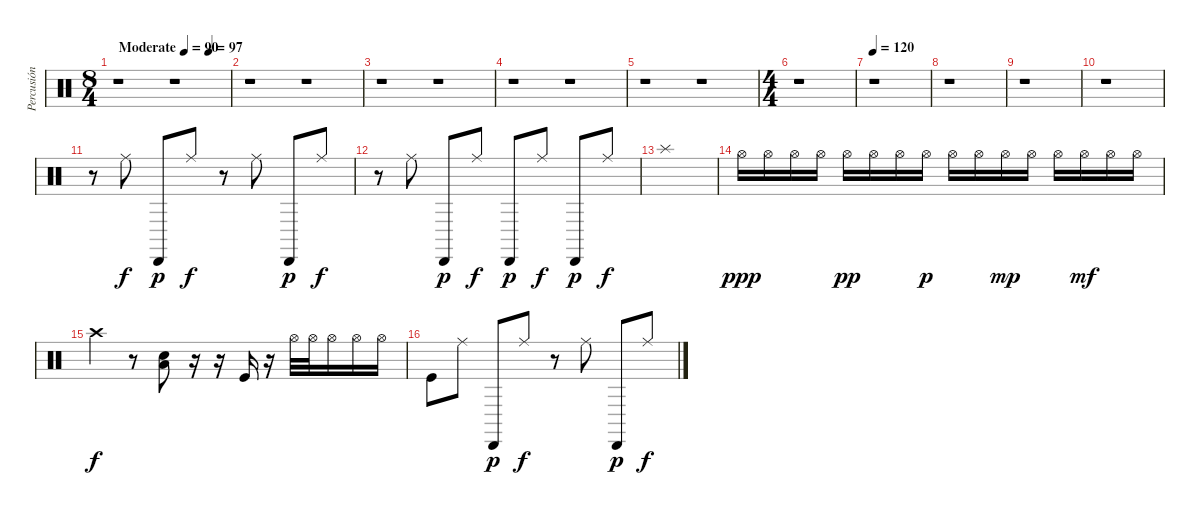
\track ("Percusión" "Percusión") {instrument percussion}
\staff {score}
\articulation defaults
\ts (8 4)
\tempo (90 "Moderate")
\tempo (97 0.8125)
\tempo (90 "Moderate")
\clef neutral
\ks c
r.1{dy f} r.1 |
r.1 r.1 |
r.1 r.1 |
r.1 r.1 |
r.1 r.1 |
\ts (4 4)
r.1 |
\tempo 120
r.1 |
r.1 |
r.1 |
r.1 |
r.8 "Ride (middle)".8 "Cabasa (hit)".8{dy p} "Ride (middle)".8{dy f} r.8 "Ride (middle)".8 "Cabasa (hit)".8{dy p} "Ride (middle)".8{dy f} |
r.8 "Ride (middle)".8 "Cabasa (hit)".8{dy p} "Ride (middle)".8{dy f} "Cabasa (hit)".8{dy p} "Ride (middle)".8{dy f} "Cabasa (hit)".8{dy p} "Ride (middle)".8{dy f} |
"Splash (hit)".1 |
"Hi-Hat (open)".16{dy ppp} "Hi-Hat (open)".16 "Hi-Hat (open)".16 "Hi-Hat (open)".16 "Hi-Hat (open)".16{dy pp} "Hi-Hat (open)".16 "Hi-Hat (open)".16 "Hi-Hat (open)".16{dy p} "Hi-Hat (open)".16 "Hi-Hat (open)".16 "Hi-Hat (open)".16{dy mp} "Hi-Hat (open)".16 "Hi-Hat (open)".16 "Hi-Hat (open)".16{dy mf} "Hi-Hat (open)".16 "Hi-Hat (open)".16 |
"Crash high (hit)".4{dy f} r.8 ("Electric Snare (hit)" "Low Tom (hit)").8 r.16 r.16 "Kick (hit)".16 r.16 "Hi-Hat (open)".32 "Hi-Hat (open)".32 "Hi-Hat (open)".16 "Hi-Hat (open)".16 "Hi-Hat (open)".16 |
"Kick (hit)".8 "Ride (middle)".8 "Cabasa (hit)".8{dy p} "Ride (middle)".8{dy f} r.8 "Ride (middle)".8 "Cabasa (hit)".8{dy p} "Ride (middle)".8{dy f}
